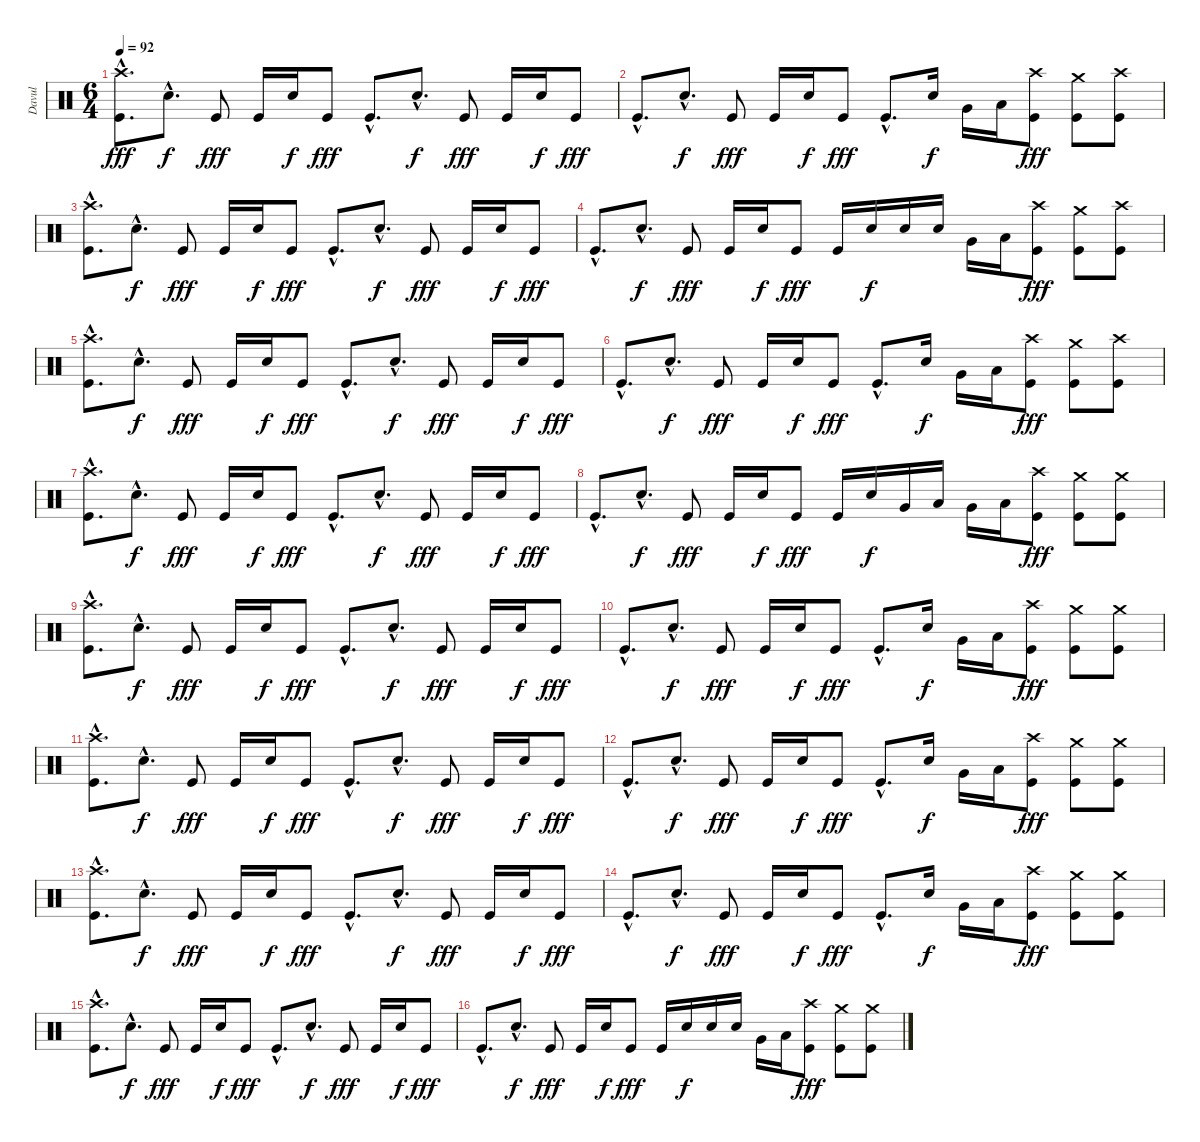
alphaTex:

\track ("Davul" "Davul") {instrument percussion}
\staff {score}
\articulation defaults
\ts (6 4)
\tempo 92
\clef neutral
\ks c
("Crash high (hit)"{hac} "Kick (hit)"{hac}).8{d dy fff} "Snare (hit) 2"{hac}.8{d dy f} "Kick (hit)".8{dy fff} "Kick (hit)".16 "Snare (hit) 2".16{dy f} "Kick (hit)".8{dy fff} "Kick (hit)"{hac}.8{d} "Snare (hit) 2"{hac}.8{d dy f} "Kick (hit)".8{dy fff} "Kick (hit)".16 "Snare (hit) 2".16{dy f} "Kick (hit)".8{dy fff} |
"Kick (hit)"{hac}.8{d} "Snare (hit) 2"{hac}.8{d dy f} "Kick (hit)".8{dy fff} "Kick (hit)".16 "Snare (hit) 2".16{dy f} "Kick (hit)".8{dy fff} "Kick (hit)"{hac}.8{d} "Snare (hit) 2".16{dy f} "Very Low Tom (hit)".16 "Low Floor Tom (hit)".16 ("Crash high (hit)" "Kick (hit)").8{dy fff} ("Crash medium (hit)" "Kick (hit)").8 ("Crash high (hit)" "Kick (hit)").8 |
("Crash high (hit)"{hac} "Kick (hit)"{hac}).8{d} "Snare (hit) 2"{hac}.8{d dy f} "Kick (hit)".8{dy fff} "Kick (hit)".16 "Snare (hit) 2".16{dy f} "Kick (hit)".8{dy fff} "Kick (hit)"{hac}.8{d} "Snare (hit) 2"{hac}.8{d dy f} "Kick (hit)".8{dy fff} "Kick (hit)".16 "Snare (hit) 2".16{dy f} "Kick (hit)".8{dy fff} |
"Kick (hit)"{hac}.8{d} "Snare (hit) 2"{hac}.8{d dy f} "Kick (hit)".8{dy fff} "Kick (hit)".16 "Snare (hit) 2".16{dy f} "Kick (hit)".8{dy fff} "Kick (hit)".16 "Snare (hit) 2".16{dy f} "Snare (hit) 2".16 "Snare (hit) 2".16 "Very Low Tom (hit)".16 "Low Floor Tom (hit)".16 ("Crash high (hit)" "Kick (hit)").8{dy fff} ("Crash medium (hit)" "Kick (hit)").8 ("Crash high (hit)" "Kick (hit)").8 |
("Crash high (hit)"{hac} "Kick (hit)"{hac}).8{d} "Snare (hit) 2"{hac}.8{d dy f} "Kick (hit)".8{dy fff} "Kick (hit)".16 "Snare (hit) 2".16{dy f} "Kick (hit)".8{dy fff} "Kick (hit)"{hac}.8{d} "Snare (hit) 2"{hac}.8{d dy f} "Kick (hit)".8{dy fff} "Kick (hit)".16 "Snare (hit) 2".16{dy f} "Kick (hit)".8{dy fff} |
"Kick (hit)"{hac}.8{d} "Snare (hit) 2"{hac}.8{d dy f} "Kick (hit)".8{dy fff} "Kick (hit)".16 "Snare (hit) 2".16{dy f} "Kick (hit)".8{dy fff} "Kick (hit)"{hac}.8{d} "Snare (hit) 2".16{dy f} "Very Low Tom (hit)".16 "Low Floor Tom (hit)".16 ("Crash high (hit)" "Kick (hit)").8{dy fff} ("Crash medium (hit)" "Kick (hit)").8 ("Crash high (hit)" "Kick (hit)").8 |
("Crash high (hit)"{hac} "Kick (hit)"{hac}).8{d} "Snare (hit) 2"{hac}.8{d dy f} "Kick (hit)".8{dy fff} "Kick (hit)".16 "Snare (hit) 2".16{dy f} "Kick (hit)".8{dy fff} "Kick (hit)"{hac}.8{d} "Snare (hit) 2"{hac}.8{d dy f} "Kick (hit)".8{dy fff} "Kick (hit)".16 "Snare (hit) 2".16{dy f} "Kick (hit)".8{dy fff} |
"Kick (hit)"{hac}.8{d} "Snare (hit) 2"{hac}.8{d dy f} "Kick (hit)".8{dy fff} "Kick (hit)".16 "Snare (hit) 2".16{dy f} "Kick (hit)".8{dy fff} "Kick (hit)".16 "Snare (hit) 2".16{dy f} "Very Low Tom (hit)".16 "Low Tom (hit)".16 "Very Low Tom (hit)".16 "Low Floor Tom (hit)".16 ("Crash high (hit)" "Kick (hit)").8{dy fff} ("Crash medium (hit)" "Kick (hit)").8 ("Crash medium (hit)" "Kick (hit)").8 |
("Crash high (hit)"{hac} "Kick (hit)"{hac}).8{d} "Snare (hit) 2"{hac}.8{d dy f} "Kick (hit)".8{dy fff} "Kick (hit)".16 "Snare (hit) 2".16{dy f} "Kick (hit)".8{dy fff} "Kick (hit)"{hac}.8{d} "Snare (hit) 2"{hac}.8{d dy f} "Kick (hit)".8{dy fff} "Kick (hit)".16 "Snare (hit) 2".16{dy f} "Kick (hit)".8{dy fff} |
"Kick (hit)"{hac}.8{d} "Snare (hit) 2"{hac}.8{d dy f} "Kick (hit)".8{dy fff} "Kick (hit)".16 "Snare (hit) 2".16{dy f} "Kick (hit)".8{dy fff} "Kick (hit)"{hac}.8{d} "Snare (hit) 2".16{dy f} "Very Low Tom (hit)".16 "Low Floor Tom (hit)".16 ("Crash high (hit)" "Kick (hit)").8{dy fff} ("Crash medium (hit)" "Kick (hit)").8 ("Crash medium (hit)" "Kick (hit)").8 |
("Crash high (hit)"{hac} "Kick (hit)"{hac}).8{d} "Snare (hit) 2"{hac}.8{d dy f} "Kick (hit)".8{dy fff} "Kick (hit)".16 "Snare (hit) 2".16{dy f} "Kick (hit)".8{dy fff} "Kick (hit)"{hac}.8{d} "Snare (hit) 2"{hac}.8{d dy f} "Kick (hit)".8{dy fff} "Kick (hit)".16 "Snare (hit) 2".16{dy f} "Kick (hit)".8{dy fff} |
"Kick (hit)"{hac}.8{d} "Snare (hit) 2"{hac}.8{d dy f} "Kick (hit)".8{dy fff} "Kick (hit)".16 "Snare (hit) 2".16{dy f} "Kick (hit)".8{dy fff} "Kick (hit)"{hac}.8{d} "Snare (hit) 2".16{dy f} "Very Low Tom (hit)".16 "Low Floor Tom (hit)".16 ("Crash high (hit)" "Kick (hit)").8{dy fff} ("Crash medium (hit)" "Kick (hit)").8 ("Crash medium (hit)" "Kick (hit)").8 |
("Crash high (hit)"{hac} "Kick (hit)"{hac}).8{d} "Snare (hit) 2"{hac}.8{d dy f} "Kick (hit)".8{dy fff} "Kick (hit)".16 "Snare (hit) 2".16{dy f} "Kick (hit)".8{dy fff} "Kick (hit)"{hac}.8{d} "Snare (hit) 2"{hac}.8{d dy f} "Kick (hit)".8{dy fff} "Kick (hit)".16 "Snare (hit) 2".16{dy f} "Kick (hit)".8{dy fff} |
"Kick (hit)"{hac}.8{d} "Snare (hit) 2"{hac}.8{d dy f} "Kick (hit)".8{dy fff} "Kick (hit)".16 "Snare (hit) 2".16{dy f} "Kick (hit)".8{dy fff} "Kick (hit)"{hac}.8{d} "Snare (hit) 2".16{dy f} "Very Low Tom (hit)".16 "Low Floor Tom (hit)".16 ("Crash high (hit)" "Kick (hit)").8{dy fff} ("Crash medium (hit)" "Kick (hit)").8 ("Crash medium (hit)" "Kick (hit)").8 |
("Crash high (hit)"{hac} "Kick (hit)"{hac}).8{d} "Snare (hit) 2"{hac}.8{d dy f} "Kick (hit)".8{dy fff} "Kick (hit)".16 "Snare (hit) 2".16{dy f} "Kick (hit)".8{dy fff} "Kick (hit)"{hac}.8{d} "Snare (hit) 2"{hac}.8{d dy f} "Kick (hit)".8{dy fff} "Kick (hit)".16 "Snare (hit) 2".16{dy f} "Kick (hit)".8{dy fff} |
"Kick (hit)"{hac}.8{d} "Snare (hit) 2"{hac}.8{d dy f} "Kick (hit)".8{dy fff} "Kick (hit)".16 "Snare (hit) 2".16{dy f} "Kick (hit)".8{dy fff} "Kick (hit)".16 "Snare (hit) 2".16{dy f} "Snare (hit) 2".16 "Snare (hit) 2".16 "Very Low Tom (hit)".16 "Low Floor Tom (hit)".16 ("Crash high (hit)" "Kick (hit)").8{dy fff} ("Crash medium (hit)" "Kick (hit)").8 ("Crash medium (hit)" "Kick (hit)").8
